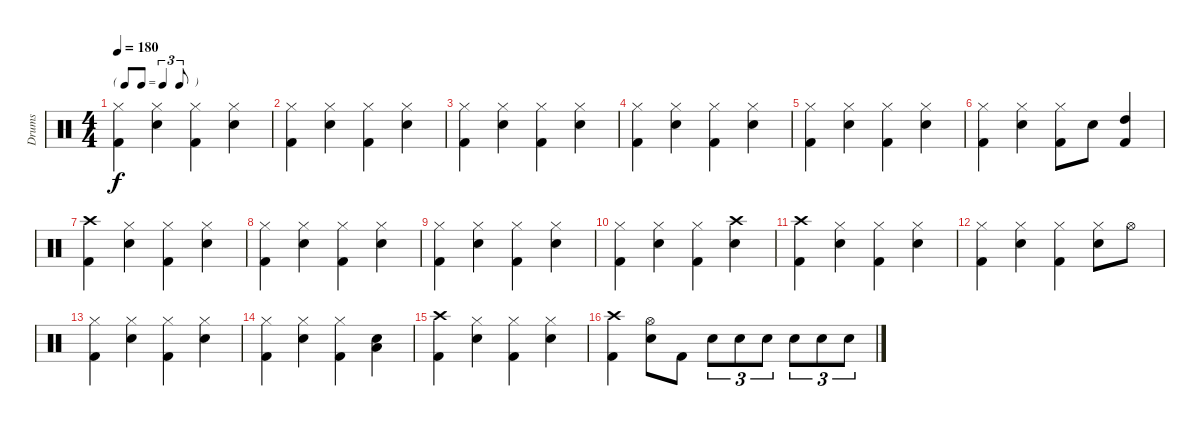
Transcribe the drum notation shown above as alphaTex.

\track ("Drums" "Drums") {instrument percussion}
\staff {score}
\articulation defaults
\ts (4 4)
\tf triplet8th
\tempo 180
\clef neutral
\ks c
("Hi-Hat (closed)" "Kick (hit) 2").4{dy f} ("Hi-Hat (closed)" "Snare (hit) 2").4 ("Hi-Hat (closed)" "Kick (hit) 2").4 ("Hi-Hat (closed)" "Snare (hit) 2").4 |
("Hi-Hat (closed)" "Kick (hit) 2").4 ("Hi-Hat (closed)" "Snare (hit) 2").4 ("Hi-Hat (closed)" "Kick (hit) 2").4 ("Hi-Hat (closed)" "Snare (hit) 2").4 |
("Hi-Hat (closed)" "Kick (hit) 2").4 ("Hi-Hat (closed)" "Snare (hit) 2").4 ("Hi-Hat (closed)" "Kick (hit) 2").4 ("Hi-Hat (closed)" "Snare (hit) 2").4 |
("Hi-Hat (closed)" "Kick (hit) 2").4 ("Hi-Hat (closed)" "Snare (hit) 2").4 ("Hi-Hat (closed)" "Kick (hit) 2").4 ("Hi-Hat (closed)" "Snare (hit) 2").4 |
("Hi-Hat (closed)" "Kick (hit) 2").4 ("Hi-Hat (closed)" "Snare (hit) 2").4 ("Hi-Hat (closed)" "Kick (hit) 2").4 ("Hi-Hat (closed)" "Snare (hit) 2").4 |
("Hi-Hat (closed)" "Kick (hit) 2").4 ("Hi-Hat (closed)" "Snare (hit) 2").4 ("Hi-Hat (closed)" "Kick (hit) 2").8 "Snare (hit) 2".8 ("High Tom (hit)" "Kick (hit) 2").4 |
("Crash high (hit)" "Kick (hit) 2").4 ("Hi-Hat (closed)" "Snare (hit) 2").4 ("Hi-Hat (closed)" "Kick (hit) 2").4 ("Hi-Hat (closed)" "Snare (hit) 2").4 |
("Hi-Hat (closed)" "Kick (hit) 2").4 ("Hi-Hat (closed)" "Snare (hit) 2").4 ("Hi-Hat (closed)" "Kick (hit) 2").4 ("Hi-Hat (closed)" "Snare (hit) 2").4 |
("Hi-Hat (closed)" "Kick (hit) 2").4 ("Hi-Hat (closed)" "Snare (hit) 2").4 ("Hi-Hat (closed)" "Kick (hit) 2").4 ("Hi-Hat (closed)" "Snare (hit) 2").4 |
("Hi-Hat (closed)" "Kick (hit) 2").4 ("Hi-Hat (closed)" "Snare (hit) 2").4 ("Hi-Hat (closed)" "Kick (hit) 2").4 ("Crash high (hit)" "Snare (hit) 2").4 |
("Crash high (hit)" "Kick (hit) 2").4 ("Hi-Hat (closed)" "Snare (hit) 2").4 ("Hi-Hat (closed)" "Kick (hit) 2").4 ("Hi-Hat (closed)" "Snare (hit) 2").4 |
("Hi-Hat (closed)" "Kick (hit) 2").4 ("Hi-Hat (closed)" "Snare (hit) 2").4 ("Hi-Hat (closed)" "Kick (hit) 2").4 ("Hi-Hat (closed)" "Snare (hit) 2").8 "Hi-Hat (open)".8 |
("Hi-Hat (closed)" "Kick (hit) 2").4 ("Hi-Hat (closed)" "Snare (hit) 2").4 ("Hi-Hat (closed)" "Kick (hit) 2").4 ("Hi-Hat (closed)" "Snare (hit) 2").4 |
("Hi-Hat (closed)" "Kick (hit) 2").4 ("Hi-Hat (closed)" "Snare (hit) 2").4 ("Hi-Hat (closed)" "Kick (hit) 2").4 ("Snare (hit) 2" "Low Tom (hit)").4 |
("Crash high (hit)" "Kick (hit) 2").4 ("Hi-Hat (closed)" "Snare (hit) 2").4 ("Hi-Hat (closed)" "Kick (hit) 2").4 ("Hi-Hat (closed)" "Snare (hit) 2").4 |
("Crash high (hit)" "Kick (hit) 2").4 ("Hi-Hat (open)" "Snare (hit) 2").8 "Kick (hit) 2".8 "Snare (hit) 2".8{tu (3 2)} "Snare (hit) 2".8{tu (3 2)} "Snare (hit) 2".8{tu (3 2)} "Snare (hit) 2".8{tu (3 2)} "Snare (hit) 2".8{tu (3 2)} "Snare (hit) 2".8{tu (3 2)}
